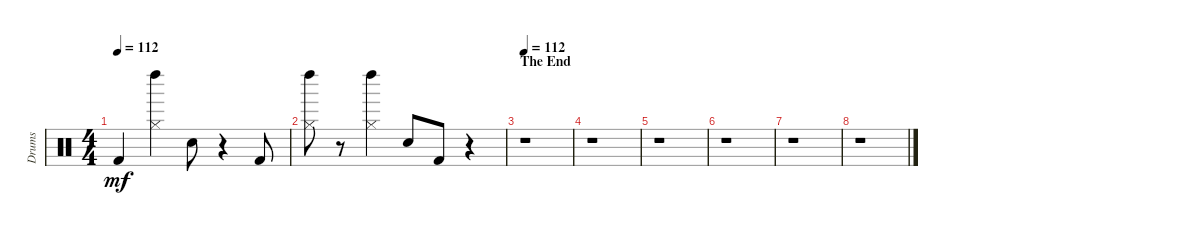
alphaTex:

\track ("Drums" "Drums") {instrument percussion}
\staff {score}
\articulation defaults
\ts (4 4)
\tempo 112
\clef neutral
\ks c "Kick (hit) 2".4{dy mf}
("Left Maraca (hit)" "Hi-Hat (closed)").4 "Snare (hit) 2".8 r.4 "Kick (hit) 2".8 |
("Left Maraca (hit)" "Hi-Hat (closed)").8 r.8 ("Left Maraca (hit)" "Hi-Hat (closed)").4 "Snare (hit) 2".8 "Kick (hit) 2".8 r.4 |
\section ("" "The End")
\tempo 112
r.1 |
r.1 |
r.1 |
r.1 |
r.1 |
r.1
